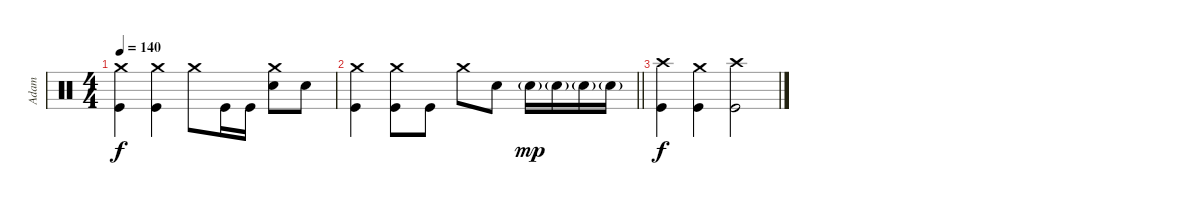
\track ("Adam" "Adam") {instrument percussion}
\staff {score}
\articulation defaults
\ts (4 4)
\tempo 140
\clef neutral
\ks c
("Crash medium (hit)" "Kick (hit)").4{dy f} ("Crash medium (hit)" "Kick (hit)").4 "Crash medium (hit)".8 "Kick (hit)".16 "Kick (hit)".16 ("Crash medium (hit)" "Electric Snare (hit)").8 "Electric Snare (hit)".8 |
\barLineRight lightlight
("Crash medium (hit)" "Kick (hit)").4 ("Crash medium (hit)" "Kick (hit)").8 "Kick (hit)".8 "Crash medium (hit)".8 "Electric Snare (hit)".8 "Electric Snare (hit)"{g}.16{dy mp} "Electric Snare (hit)"{g}.16 "Electric Snare (hit)"{g}.16 "Electric Snare (hit)"{g}.16 |
("Crash high (hit)" "Kick (hit)").4{dy f} ("Crash medium (hit)" "Kick (hit)").4 ("Crash high (hit)" "Kick (hit)").2
